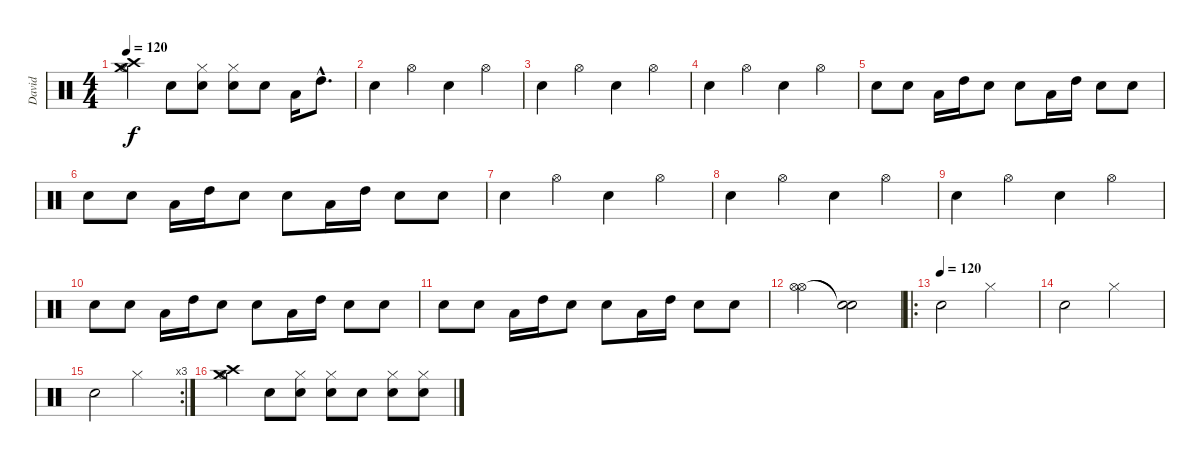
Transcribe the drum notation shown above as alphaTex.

\track ("David " "David ") {instrument percussion}
\staff {score}
\articulation defaults
\ts (4 4)
\tempo 120
\clef neutral
\ks c
("Crash medium (hit)" "Hi-Hat (open)" "Crash high (hit)").4{dy f} "Snare (hit) 2".8 ("Electric Snare (hit)" "Hi-Hat (closed)").8 ("Electric Snare (hit)" "Hi-Hat (closed)").8 "Snare (hit) 2".8 "Low Tom (hit)".16 "High Tom (hit)"{hac}.8{d} |
"Snare (hit) 2".4 "Hi-Hat (open)".4 "Snare (hit) 2".4 "Hi-Hat (open)".4 |
"Electric Snare (hit)".4 "Hi-Hat (open)".4 "Electric Snare (hit)".4 "Hi-Hat (open)".4 |
"Snare (hit) 2".4 "Hi-Hat (open)".4 "Snare (hit) 2".4 "Hi-Hat (open)".4 |
"Electric Snare (hit)".8 "Electric Snare (hit)".8 "Low Tom (hit)".16 "High Tom (hit)".16 "Electric Snare (hit)".8 "Electric Snare (hit)".8 "Low Tom (hit)".16 "High Tom (hit)".16 "Electric Snare (hit)".8 "Electric Snare (hit)".8 |
"Snare (hit) 2".8 "Snare (hit) 2".8 "Low Tom (hit)".16 "High Tom (hit)".16 "Snare (hit) 2".8 "Snare (hit) 2".8 "Low Tom (hit)".16 "High Tom (hit)".16 "Snare (hit) 2".8 "Snare (hit) 2".8 |
"Snare (hit) 2".4 "Hi-Hat (open)".4 "Snare (hit) 2".4 "Hi-Hat (open)".4 |
"Electric Snare (hit)".4 "Hi-Hat (open)".4 "Electric Snare (hit)".4 "Hi-Hat (open)".4 |
"Snare (hit) 2".4 "Hi-Hat (open)".4 "Snare (hit) 2".4 "Hi-Hat (open)".4 |
"Electric Snare (hit)".8 "Electric Snare (hit)".8 "Low Tom (hit)".16 "High Tom (hit)".16 "Electric Snare (hit)".8 "Electric Snare (hit)".8 "Low Tom (hit)".16 "High Tom (hit)".16 "Electric Snare (hit)".8 "Electric Snare (hit)".8 |
"Snare (hit) 2".8 "Snare (hit) 2".8 "Low Tom (hit)".16 "High Tom (hit)".16 "Snare (hit) 2".8 "Snare (hit) 2".8 "Low Tom (hit)".16 "High Tom (hit)".16 "Snare (hit) 2".8 "Snare (hit) 2".8 |
("Hi-Hat (open)" "Hi-Hat (open)").2 ("Snare (hit)"{t} "Snare (hit)"{t}).2 |
\ro
\tempo (120)
"Snare (hit) 2".2 "Hi-Hat (closed)".2 |
"Snare (hit) 2".2 "Hi-Hat (closed)".2 |
\rc 3 "Snare (hit) 2".2 "Hi-Hat (closed)".2
|
("Crash high (hit)" "Crash medium (hit)" "Hi-Hat (open)").4 "Snare (hit) 2".8 ("Electric Snare (hit)" "Hi-Hat (closed)").8 ("Electric Snare (hit)" "Hi-Hat (closed)").8 "Snare (hit) 2".8 ("Electric Snare (hit)" "Hi-Hat (closed)").8 ("Electric Snare (hit)" "Hi-Hat (closed)").8
